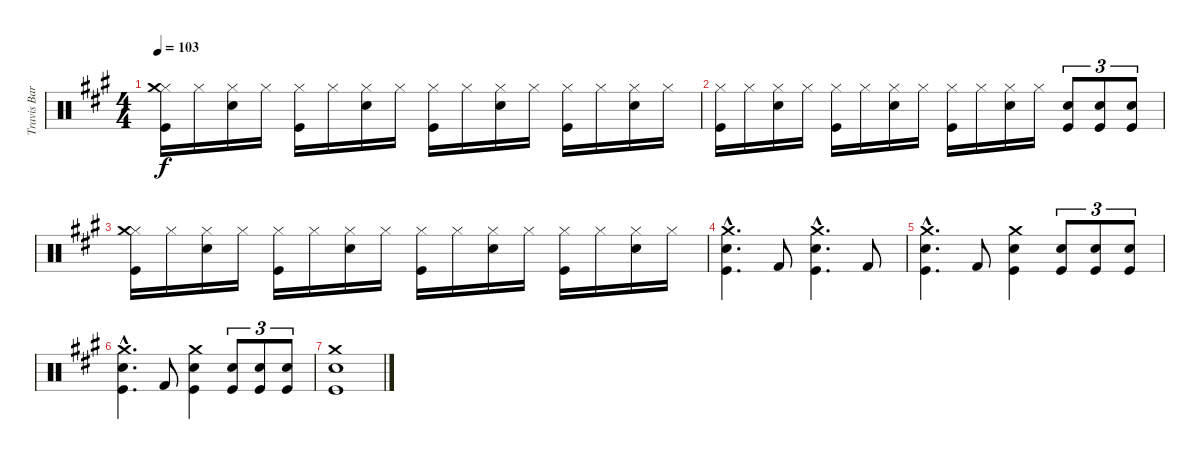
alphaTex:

\track ("Travis Barker (Schlagzeug)" "Travis Bar") {instrument percussion}
\staff {score}
\articulation defaults
\ts (4 4)
\tempo 103
\clef neutral
\ks a
("Hi-Hat (closed)" "Crash medium (hit)" "Kick (hit)").16{dy f} "Hi-Hat (closed)".16 ("Hi-Hat (closed)" "Snare (hit) 2").16 "Hi-Hat (closed)".16 ("Hi-Hat (closed)" "Kick (hit)").16 "Hi-Hat (closed)".16 ("Hi-Hat (closed)" "Snare (hit) 2").16 "Hi-Hat (closed)".16 ("Hi-Hat (closed)" "Kick (hit)").16 "Hi-Hat (closed)".16 ("Hi-Hat (closed)" "Snare (hit) 2").16 "Hi-Hat (closed)".16 ("Hi-Hat (closed)" "Kick (hit)").16 "Hi-Hat (closed)".16 ("Hi-Hat (closed)" "Snare (hit) 2").16 "Hi-Hat (closed)".16 |
("Hi-Hat (closed)" "Kick (hit)").16 "Hi-Hat (closed)".16 ("Hi-Hat (closed)" "Snare (hit) 2").16 "Hi-Hat (closed)".16 ("Hi-Hat (closed)" "Kick (hit)").16 "Hi-Hat (closed)".16 ("Hi-Hat (closed)" "Snare (hit) 2").16 "Hi-Hat (closed)".16 ("Hi-Hat (closed)" "Kick (hit)").16 "Hi-Hat (closed)".16 ("Hi-Hat (closed)" "Snare (hit) 2").16 "Hi-Hat (closed)".16 ("Snare (hit) 2" "Kick (hit)").8{tu (3 2)} ("Snare (hit) 2" "Kick (hit)").8{tu (3 2)} ("Snare (hit) 2" "Kick (hit)").8{tu (3 2)} |
("Hi-Hat (closed)" "Crash medium (hit)" "Kick (hit)").16 "Hi-Hat (closed)".16 ("Hi-Hat (closed)" "Snare (hit) 2").16 "Hi-Hat (closed)".16 ("Hi-Hat (closed)" "Kick (hit)").16 "Hi-Hat (closed)".16 ("Hi-Hat (closed)" "Snare (hit) 2").16 "Hi-Hat (closed)".16 ("Hi-Hat (closed)" "Kick (hit)").16 "Hi-Hat (closed)".16 ("Hi-Hat (closed)" "Snare (hit) 2").16 "Hi-Hat (closed)".16 ("Hi-Hat (closed)" "Kick (hit)").16 "Hi-Hat (closed)".16 ("Hi-Hat (closed)" "Snare (hit) 2").16 "Hi-Hat (closed)".16 |
("Crash medium (hit)"{hac} "Snare (hit) 2"{hac} "Kick (hit)"{hac}).4{d} "Kick (hit) 2".8 ("Crash medium (hit)"{hac} "Snare (hit) 2"{hac} "Kick (hit)"{hac}).4{d} "Kick (hit) 2".8 |
("Crash medium (hit)"{hac} "Snare (hit) 2"{hac} "Kick (hit)"{hac}).4{d} "Kick (hit) 2".8 ("Crash medium (hit)" "Snare (hit) 2" "Kick (hit)").4 ("Snare (hit) 2" "Kick (hit)").8{tu (3 2)} ("Snare (hit) 2" "Kick (hit)").8{tu (3 2)} ("Snare (hit) 2" "Kick (hit)").8{tu (3 2)} |
("Crash medium (hit)"{hac} "Snare (hit) 2"{hac} "Kick (hit)"{hac}).4{d} "Kick (hit) 2".8 ("Crash medium (hit)" "Snare (hit) 2" "Kick (hit)").4 ("Snare (hit) 2" "Kick (hit)").8{tu (3 2)} ("Snare (hit) 2" "Kick (hit)").8{tu (3 2)} ("Snare (hit) 2" "Kick (hit)").8{tu (3 2)} |
("Crash medium (hit)" "Snare (hit) 2" "Kick (hit)").1
